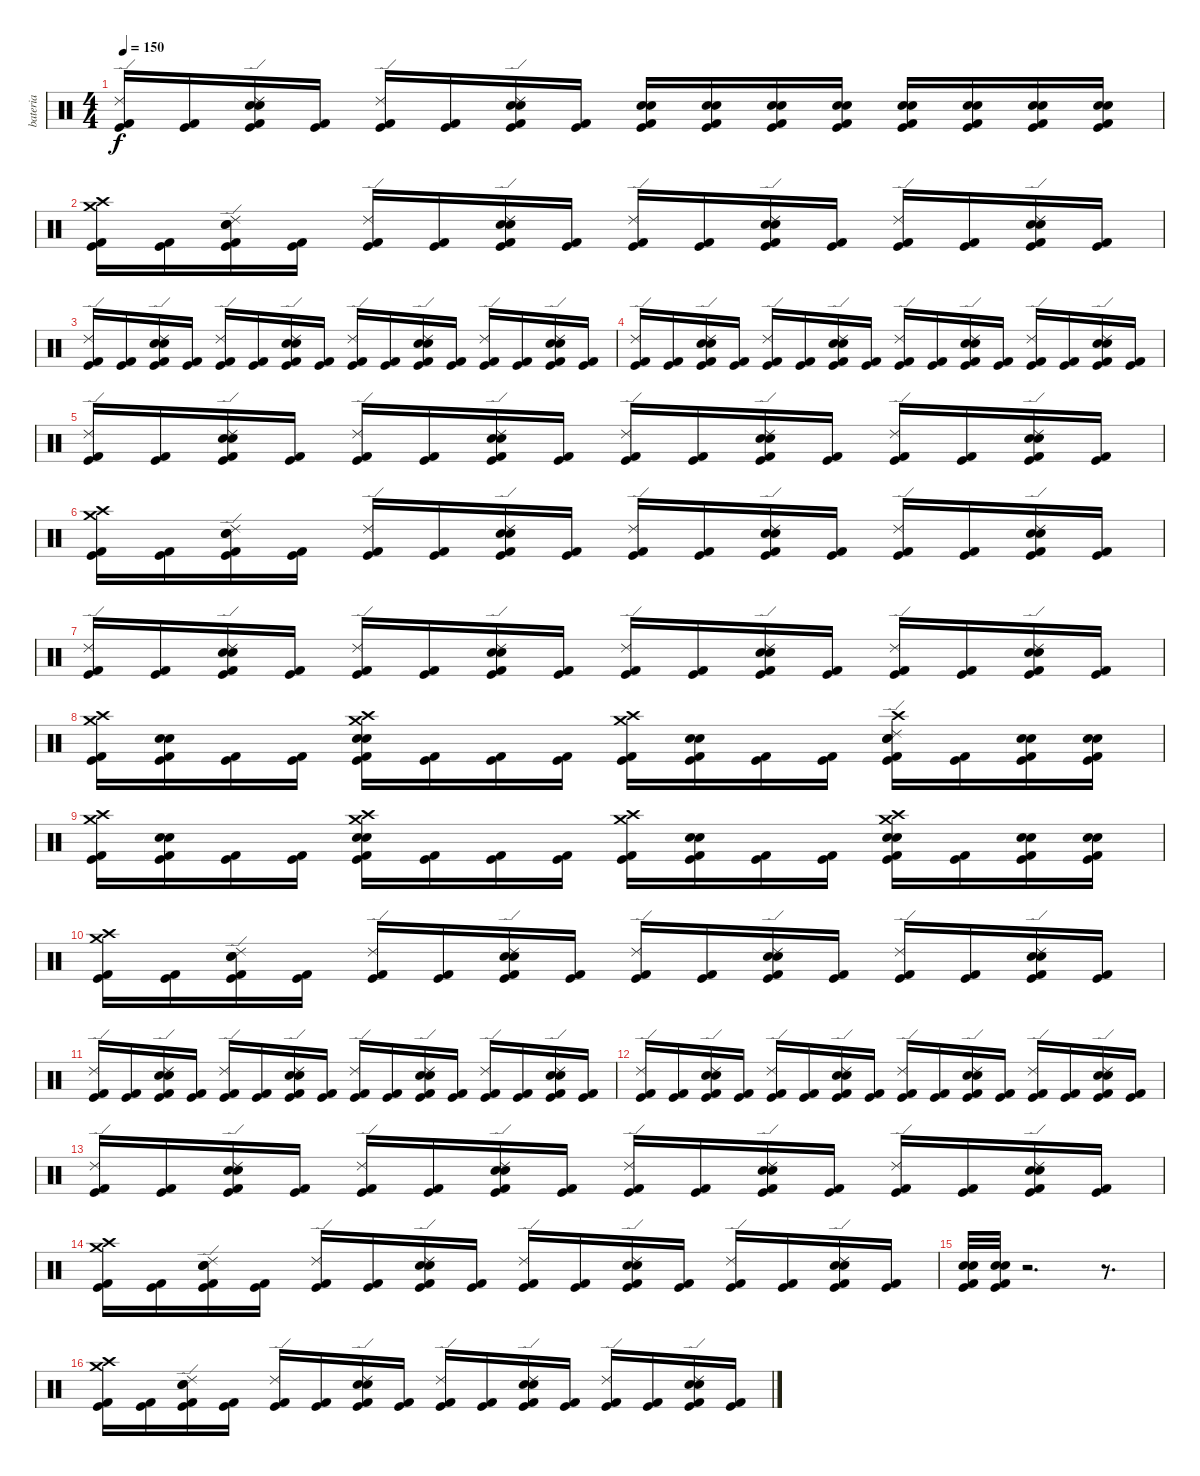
\track ("bateria" "bateria") {instrument percussion}
\staff {score}
\articulation defaults
\ts (4 4)
\tempo 150
\clef neutral
\ks c
("Ride (edge) 2" "Kick (hit) 2" "Kick (hit)").16{dy f} ("Kick (hit) 2" "Kick (hit)").16 ("Snare (hit) 2" "Electric Snare (hit)" "Ride (edge) 2" "Kick (hit) 2" "Kick (hit)").16 ("Kick (hit) 2" "Kick (hit)").16 ("Ride (edge) 2" "Kick (hit) 2" "Kick (hit)").16 ("Kick (hit) 2" "Kick (hit)").16 ("Electric Snare (hit)" "Snare (hit) 2" "Ride (edge) 2" "Kick (hit) 2" "Kick (hit)").16 ("Kick (hit) 2" "Kick (hit)").16 ("Snare (hit) 2" "Electric Snare (hit)" "Kick (hit) 2" "Kick (hit)").16 ("Snare (hit) 2" "Electric Snare (hit)" "Kick (hit) 2" "Kick (hit)").16 ("Snare (hit) 2" "Electric Snare (hit)" "Kick (hit) 2" "Kick (hit)").16 ("Snare (hit) 2" "Electric Snare (hit)" "Kick (hit) 2" "Kick (hit)").16 ("Snare (hit) 2" "Electric Snare (hit)" "Kick (hit) 2" "Kick (hit)").16 ("Snare (hit) 2" "Electric Snare (hit)" "Kick (hit) 2" "Kick (hit)").16 ("Snare (hit) 2" "Electric Snare (hit)" "Kick (hit) 2" "Kick (hit)").16 ("Snare (hit) 2" "Electric Snare (hit)" "Kick (hit) 2" "Kick (hit)").16 |
("Crash high (hit)" "Crash medium (hit)" "Kick (hit) 2" "Kick (hit)").16 ("Kick (hit) 2" "Kick (hit)").16 ("Ride (edge) 2" "Snare (hit) 2" "Electric Snare (hit)" "Kick (hit) 2" "Kick (hit)").16 ("Kick (hit) 2" "Kick (hit)").16 ("Ride (edge) 2" "Kick (hit) 2" "Kick (hit)").16 ("Kick (hit) 2" "Kick (hit)").16 ("Ride (edge) 2" "Electric Snare (hit)" "Snare (hit) 2" "Kick (hit) 2" "Kick (hit)").16 ("Kick (hit) 2" "Kick (hit)").16 ("Ride (edge) 2" "Kick (hit) 2" "Kick (hit)").16 ("Kick (hit) 2" "Kick (hit)").16 ("Ride (edge) 2" "Snare (hit) 2" "Electric Snare (hit)" "Kick (hit) 2" "Kick (hit)").16 ("Kick (hit) 2" "Kick (hit)").16 ("Ride (edge) 2" "Kick (hit) 2" "Kick (hit)").16 ("Kick (hit) 2" "Kick (hit)").16 ("Ride (edge) 2" "Electric Snare (hit)" "Snare (hit) 2" "Kick (hit) 2" "Kick (hit)").16 ("Kick (hit) 2" "Kick (hit)").16 |
("Ride (edge) 2" "Kick (hit) 2" "Kick (hit)").16 ("Kick (hit) 2" "Kick (hit)").16 ("Ride (edge) 2" "Snare (hit) 2" "Electric Snare (hit)" "Kick (hit) 2" "Kick (hit)").16 ("Kick (hit) 2" "Kick (hit)").16 ("Ride (edge) 2" "Kick (hit) 2" "Kick (hit)").16 ("Kick (hit) 2" "Kick (hit)").16 ("Ride (edge) 2" "Electric Snare (hit)" "Snare (hit) 2" "Kick (hit) 2" "Kick (hit)").16 ("Kick (hit) 2" "Kick (hit)").16 ("Ride (edge) 2" "Kick (hit) 2" "Kick (hit)").16 ("Kick (hit) 2" "Kick (hit)").16 ("Ride (edge) 2" "Snare (hit) 2" "Electric Snare (hit)" "Kick (hit) 2" "Kick (hit)").16 ("Kick (hit) 2" "Kick (hit)").16 ("Ride (edge) 2" "Kick (hit) 2" "Kick (hit)").16 ("Kick (hit) 2" "Kick (hit)").16 ("Ride (edge) 2" "Electric Snare (hit)" "Snare (hit) 2" "Kick (hit) 2" "Kick (hit)").16 ("Kick (hit) 2" "Kick (hit)").16 |
("Ride (edge) 2" "Kick (hit) 2" "Kick (hit)").16 ("Kick (hit) 2" "Kick (hit)").16 ("Ride (edge) 2" "Snare (hit) 2" "Electric Snare (hit)" "Kick (hit) 2" "Kick (hit)").16 ("Kick (hit) 2" "Kick (hit)").16 ("Ride (edge) 2" "Kick (hit) 2" "Kick (hit)").16 ("Kick (hit) 2" "Kick (hit)").16 ("Ride (edge) 2" "Electric Snare (hit)" "Snare (hit) 2" "Kick (hit) 2" "Kick (hit)").16 ("Kick (hit) 2" "Kick (hit)").16 ("Ride (edge) 2" "Kick (hit) 2" "Kick (hit)").16 ("Kick (hit) 2" "Kick (hit)").16 ("Ride (edge) 2" "Snare (hit) 2" "Electric Snare (hit)" "Kick (hit) 2" "Kick (hit)").16 ("Kick (hit) 2" "Kick (hit)").16 ("Ride (edge) 2" "Kick (hit) 2" "Kick (hit)").16 ("Kick (hit) 2" "Kick (hit)").16 ("Ride (edge) 2" "Electric Snare (hit)" "Snare (hit) 2" "Kick (hit) 2" "Kick (hit)").16 ("Kick (hit) 2" "Kick (hit)").16 |
("Ride (edge) 2" "Kick (hit) 2" "Kick (hit)").16 ("Kick (hit) 2" "Kick (hit)").16 ("Ride (edge) 2" "Snare (hit) 2" "Electric Snare (hit)" "Kick (hit) 2" "Kick (hit)").16 ("Kick (hit) 2" "Kick (hit)").16 ("Ride (edge) 2" "Kick (hit) 2" "Kick (hit)").16 ("Kick (hit) 2" "Kick (hit)").16 ("Ride (edge) 2" "Electric Snare (hit)" "Snare (hit) 2" "Kick (hit) 2" "Kick (hit)").16 ("Kick (hit) 2" "Kick (hit)").16 ("Ride (edge) 2" "Kick (hit) 2" "Kick (hit)").16 ("Kick (hit) 2" "Kick (hit)").16 ("Ride (edge) 2" "Snare (hit) 2" "Electric Snare (hit)" "Kick (hit) 2" "Kick (hit)").16 ("Kick (hit) 2" "Kick (hit)").16 ("Ride (edge) 2" "Kick (hit) 2" "Kick (hit)").16 ("Kick (hit) 2" "Kick (hit)").16 ("Ride (edge) 2" "Electric Snare (hit)" "Snare (hit) 2" "Kick (hit) 2" "Kick (hit)").16 ("Kick (hit) 2" "Kick (hit)").16 |
("Crash high (hit)" "Crash medium (hit)" "Kick (hit) 2" "Kick (hit)").16 ("Kick (hit) 2" "Kick (hit)").16 ("Ride (edge) 2" "Snare (hit) 2" "Electric Snare (hit)" "Kick (hit) 2" "Kick (hit)").16 ("Kick (hit) 2" "Kick (hit)").16 ("Ride (edge) 2" "Kick (hit) 2" "Kick (hit)").16 ("Kick (hit) 2" "Kick (hit)").16 ("Ride (edge) 2" "Electric Snare (hit)" "Snare (hit) 2" "Kick (hit) 2" "Kick (hit)").16 ("Kick (hit) 2" "Kick (hit)").16 ("Ride (edge) 2" "Kick (hit) 2" "Kick (hit)").16 ("Kick (hit) 2" "Kick (hit)").16 ("Ride (edge) 2" "Snare (hit) 2" "Electric Snare (hit)" "Kick (hit) 2" "Kick (hit)").16 ("Kick (hit) 2" "Kick (hit)").16 ("Ride (edge) 2" "Kick (hit) 2" "Kick (hit)").16 ("Kick (hit) 2" "Kick (hit)").16 ("Ride (edge) 2" "Electric Snare (hit)" "Snare (hit) 2" "Kick (hit) 2" "Kick (hit)").16 ("Kick (hit) 2" "Kick (hit)").16 |
("Ride (edge) 2" "Kick (hit) 2" "Kick (hit)").16 ("Kick (hit) 2" "Kick (hit)").16 ("Ride (edge) 2" "Snare (hit) 2" "Electric Snare (hit)" "Kick (hit) 2" "Kick (hit)").16 ("Kick (hit) 2" "Kick (hit)").16 ("Ride (edge) 2" "Kick (hit) 2" "Kick (hit)").16 ("Kick (hit) 2" "Kick (hit)").16 ("Ride (edge) 2" "Electric Snare (hit)" "Snare (hit) 2" "Kick (hit) 2" "Kick (hit)").16 ("Kick (hit) 2" "Kick (hit)").16 ("Ride (edge) 2" "Kick (hit) 2" "Kick (hit)").16 ("Kick (hit) 2" "Kick (hit)").16 ("Ride (edge) 2" "Snare (hit) 2" "Electric Snare (hit)" "Kick (hit) 2" "Kick (hit)").16 ("Kick (hit) 2" "Kick (hit)").16 ("Ride (edge) 2" "Kick (hit) 2" "Kick (hit)").16 ("Kick (hit) 2" "Kick (hit)").16 ("Ride (edge) 2" "Electric Snare (hit)" "Snare (hit) 2" "Kick (hit) 2" "Kick (hit)").16 ("Kick (hit) 2" "Kick (hit)").16 |
("Crash high (hit)" "Crash medium (hit)" "Kick (hit) 2" "Kick (hit)").16 ("Electric Snare (hit)" "Snare (hit) 2" "Kick (hit) 2" "Kick (hit)").16 ("Kick (hit) 2" "Kick (hit)").16 ("Kick (hit) 2" "Kick (hit)").16 ("Electric Snare (hit)" "Snare (hit) 2" "Crash high (hit)" "Crash medium (hit)" "Kick (hit) 2" "Kick (hit)").16 ("Kick (hit) 2" "Kick (hit)").16 ("Kick (hit) 2" "Kick (hit)").16 ("Kick (hit) 2" "Kick (hit)").16 ("Crash high (hit)" "Crash medium (hit)" "Kick (hit) 2" "Kick (hit)").16 ("Electric Snare (hit)" "Snare (hit) 2" "Kick (hit) 2" "Kick (hit)").16 ("Kick (hit) 2" "Kick (hit)").16 ("Kick (hit) 2" "Kick (hit)").16 ("Electric Snare (hit)" "Crash high (hit)" "Snare (hit) 2" "Ride (edge) 2" "Kick (hit) 2" "Kick (hit)").16 ("Kick (hit) 2" "Kick (hit)").16 ("Electric Snare (hit)" "Snare (hit) 2" "Kick (hit) 2" "Kick (hit)").16 ("Electric Snare (hit)" "Snare (hit) 2" "Kick (hit) 2" "Kick (hit)").16 |
("Crash high (hit)" "Crash medium (hit)" "Kick (hit) 2" "Kick (hit)").16 ("Electric Snare (hit)" "Snare (hit) 2" "Kick (hit) 2" "Kick (hit)").16 ("Kick (hit) 2" "Kick (hit)").16 ("Kick (hit) 2" "Kick (hit)").16 ("Crash high (hit)" "Electric Snare (hit)" "Snare (hit) 2" "Crash medium (hit)" "Kick (hit) 2" "Kick (hit)").16 ("Kick (hit) 2" "Kick (hit)").16 ("Kick (hit) 2" "Kick (hit)").16 ("Kick (hit) 2" "Kick (hit)").16 ("Crash high (hit)" "Crash medium (hit)" "Kick (hit) 2" "Kick (hit)").16 ("Electric Snare (hit)" "Snare (hit) 2" "Kick (hit) 2" "Kick (hit)").16 ("Kick (hit) 2" "Kick (hit)").16 ("Kick (hit) 2" "Kick (hit)").16 ("Electric Snare (hit)" "Snare (hit) 2" "Crash high (hit)" "Crash medium (hit)" "Kick (hit) 2" "Kick (hit)").16 ("Kick (hit) 2" "Kick (hit)").16 ("Electric Snare (hit)" "Snare (hit) 2" "Kick (hit) 2" "Kick (hit)").16 ("Electric Snare (hit)" "Snare (hit) 2" "Kick (hit) 2" "Kick (hit)").16 |
("Crash high (hit)" "Crash medium (hit)" "Kick (hit) 2" "Kick (hit)").16 ("Kick (hit) 2" "Kick (hit)").16 ("Ride (edge) 2" "Snare (hit) 2" "Electric Snare (hit)" "Kick (hit) 2" "Kick (hit)").16 ("Kick (hit) 2" "Kick (hit)").16 ("Ride (edge) 2" "Kick (hit) 2" "Kick (hit)").16 ("Kick (hit) 2" "Kick (hit)").16 ("Ride (edge) 2" "Electric Snare (hit)" "Snare (hit) 2" "Kick (hit) 2" "Kick (hit)").16 ("Kick (hit) 2" "Kick (hit)").16 ("Ride (edge) 2" "Kick (hit) 2" "Kick (hit)").16 ("Kick (hit) 2" "Kick (hit)").16 ("Ride (edge) 2" "Snare (hit) 2" "Electric Snare (hit)" "Kick (hit) 2" "Kick (hit)").16 ("Kick (hit) 2" "Kick (hit)").16 ("Ride (edge) 2" "Kick (hit) 2" "Kick (hit)").16 ("Kick (hit) 2" "Kick (hit)").16 ("Ride (edge) 2" "Electric Snare (hit)" "Snare (hit) 2" "Kick (hit) 2" "Kick (hit)").16 ("Kick (hit) 2" "Kick (hit)").16 |
("Ride (edge) 2" "Kick (hit) 2" "Kick (hit)").16 ("Kick (hit) 2" "Kick (hit)").16 ("Ride (edge) 2" "Snare (hit) 2" "Electric Snare (hit)" "Kick (hit) 2" "Kick (hit)").16 ("Kick (hit) 2" "Kick (hit)").16 ("Ride (edge) 2" "Kick (hit) 2" "Kick (hit)").16 ("Kick (hit) 2" "Kick (hit)").16 ("Ride (edge) 2" "Electric Snare (hit)" "Snare (hit) 2" "Kick (hit) 2" "Kick (hit)").16 ("Kick (hit) 2" "Kick (hit)").16 ("Ride (edge) 2" "Kick (hit) 2" "Kick (hit)").16 ("Kick (hit) 2" "Kick (hit)").16 ("Ride (edge) 2" "Snare (hit) 2" "Electric Snare (hit)" "Kick (hit) 2" "Kick (hit)").16 ("Kick (hit) 2" "Kick (hit)").16 ("Ride (edge) 2" "Kick (hit) 2" "Kick (hit)").16 ("Kick (hit) 2" "Kick (hit)").16 ("Ride (edge) 2" "Electric Snare (hit)" "Snare (hit) 2" "Kick (hit) 2" "Kick (hit)").16 ("Kick (hit) 2" "Kick (hit)").16 |
("Ride (edge) 2" "Kick (hit) 2" "Kick (hit)").16 ("Kick (hit) 2" "Kick (hit)").16 ("Ride (edge) 2" "Snare (hit) 2" "Electric Snare (hit)" "Kick (hit) 2" "Kick (hit)").16 ("Kick (hit) 2" "Kick (hit)").16 ("Ride (edge) 2" "Kick (hit) 2" "Kick (hit)").16 ("Kick (hit) 2" "Kick (hit)").16 ("Ride (edge) 2" "Electric Snare (hit)" "Snare (hit) 2" "Kick (hit) 2" "Kick (hit)").16 ("Kick (hit) 2" "Kick (hit)").16 ("Ride (edge) 2" "Kick (hit) 2" "Kick (hit)").16 ("Kick (hit) 2" "Kick (hit)").16 ("Ride (edge) 2" "Snare (hit) 2" "Electric Snare (hit)" "Kick (hit) 2" "Kick (hit)").16 ("Kick (hit) 2" "Kick (hit)").16 ("Ride (edge) 2" "Kick (hit) 2" "Kick (hit)").16 ("Kick (hit) 2" "Kick (hit)").16 ("Ride (edge) 2" "Electric Snare (hit)" "Snare (hit) 2" "Kick (hit) 2" "Kick (hit)").16 ("Kick (hit) 2" "Kick (hit)").16 |
("Ride (edge) 2" "Kick (hit) 2" "Kick (hit)").16 ("Kick (hit) 2" "Kick (hit)").16 ("Ride (edge) 2" "Snare (hit) 2" "Electric Snare (hit)" "Kick (hit) 2" "Kick (hit)").16 ("Kick (hit) 2" "Kick (hit)").16 ("Ride (edge) 2" "Kick (hit) 2" "Kick (hit)").16 ("Kick (hit) 2" "Kick (hit)").16 ("Ride (edge) 2" "Electric Snare (hit)" "Snare (hit) 2" "Kick (hit) 2" "Kick (hit)").16 ("Kick (hit) 2" "Kick (hit)").16 ("Ride (edge) 2" "Kick (hit) 2" "Kick (hit)").16 ("Kick (hit) 2" "Kick (hit)").16 ("Ride (edge) 2" "Snare (hit) 2" "Electric Snare (hit)" "Kick (hit) 2" "Kick (hit)").16 ("Kick (hit) 2" "Kick (hit)").16 ("Ride (edge) 2" "Kick (hit) 2" "Kick (hit)").16 ("Kick (hit) 2" "Kick (hit)").16 ("Ride (edge) 2" "Electric Snare (hit)" "Snare (hit) 2" "Kick (hit) 2" "Kick (hit)").16 ("Kick (hit) 2" "Kick (hit)").16 |
("Crash high (hit)" "Crash medium (hit)" "Kick (hit) 2" "Kick (hit)").16 ("Kick (hit) 2" "Kick (hit)").16 ("Ride (edge) 2" "Snare (hit) 2" "Electric Snare (hit)" "Kick (hit) 2" "Kick (hit)").16 ("Kick (hit) 2" "Kick (hit)").16 ("Ride (edge) 2" "Kick (hit) 2" "Kick (hit)").16 ("Kick (hit) 2" "Kick (hit)").16 ("Ride (edge) 2" "Electric Snare (hit)" "Snare (hit) 2" "Kick (hit) 2" "Kick (hit)").16 ("Kick (hit) 2" "Kick (hit)").16 ("Ride (edge) 2" "Kick (hit) 2" "Kick (hit)").16 ("Kick (hit) 2" "Kick (hit)").16 ("Ride (edge) 2" "Snare (hit) 2" "Electric Snare (hit)" "Kick (hit) 2" "Kick (hit)").16 ("Kick (hit) 2" "Kick (hit)").16 ("Ride (edge) 2" "Kick (hit) 2" "Kick (hit)").16 ("Kick (hit) 2" "Kick (hit)").16 ("Ride (edge) 2" "Electric Snare (hit)" "Snare (hit) 2" "Kick (hit) 2" "Kick (hit)").16 ("Kick (hit) 2" "Kick (hit)").16 |
("Kick (hit) 2" "Kick (hit)" "Electric Snare (hit)" "Snare (hit) 2").32 ("Kick (hit) 2" "Kick (hit)" "Electric Snare (hit)" "Snare (hit) 2").32 r.2{d} r.8{d} |
("Crash high (hit)" "Crash medium (hit)" "Kick (hit) 2" "Kick (hit)").16 ("Kick (hit) 2" "Kick (hit)").16 ("Ride (edge) 2" "Snare (hit) 2" "Electric Snare (hit)" "Kick (hit) 2" "Kick (hit)").16 ("Kick (hit) 2" "Kick (hit)").16 ("Ride (edge) 2" "Kick (hit) 2" "Kick (hit)").16 ("Kick (hit) 2" "Kick (hit)").16 ("Ride (edge) 2" "Electric Snare (hit)" "Snare (hit) 2" "Kick (hit) 2" "Kick (hit)").16 ("Kick (hit) 2" "Kick (hit)").16 ("Ride (edge) 2" "Kick (hit) 2" "Kick (hit)").16 ("Kick (hit) 2" "Kick (hit)").16 ("Ride (edge) 2" "Snare (hit) 2" "Electric Snare (hit)" "Kick (hit) 2" "Kick (hit)").16 ("Kick (hit) 2" "Kick (hit)").16 ("Ride (edge) 2" "Kick (hit) 2" "Kick (hit)").16 ("Kick (hit) 2" "Kick (hit)").16 ("Ride (edge) 2" "Electric Snare (hit)" "Snare (hit) 2" "Kick (hit) 2" "Kick (hit)").16 ("Kick (hit) 2" "Kick (hit)").16
